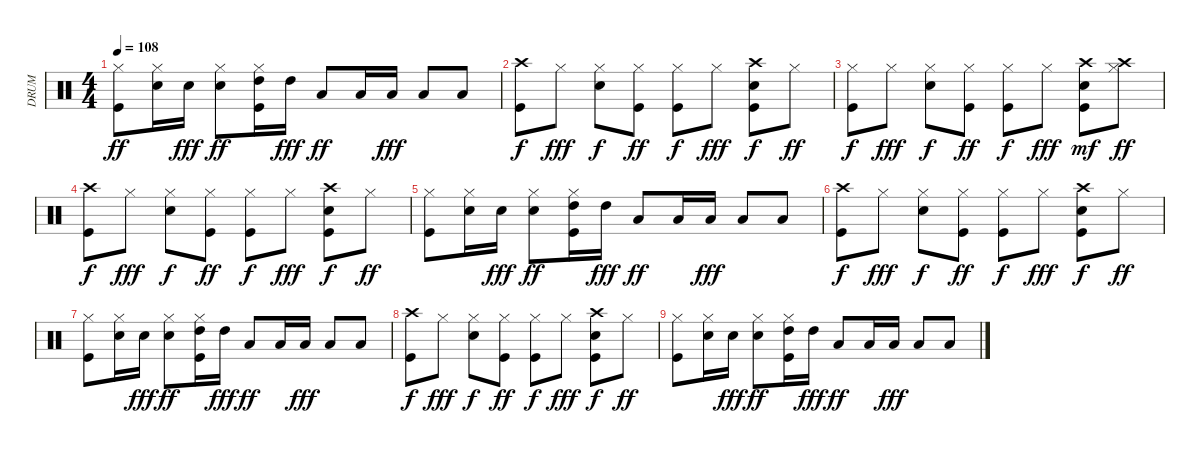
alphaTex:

\track ("DRUM" "DRUM") {instrument percussion}
\staff {score}
\articulation defaults
\ts (4 4)
\tempo 108
\clef neutral
\ks c
("Kick (hit)" "Hi-Hat (closed)").8{dy ff} ("Electric Snare (hit)" "Hi-Hat (closed)").16 "Electric Snare (hit)".16{dy fff} ("Electric Snare (hit)" "Hi-Hat (closed)").8{dy ff} ("Kick (hit)" "Hi-Hat (closed)" "High Tom (hit)").16 "High Tom (hit)".16{dy fff} "Low Tom (hit)".8{dy ff} "Low Tom (hit)".16 "Low Tom (hit)".16{dy fff} "Low Floor Tom (hit)".8 "Low Floor Tom (hit)".8 |
("Kick (hit)" "Crash high (hit)").8{dy f} "Hi-Hat (closed)".8{dy fff} ("Electric Snare (hit)" "Hi-Hat (closed)").8{dy f} ("Kick (hit)" "Hi-Hat (closed)").8{dy ff} ("Kick (hit)" "Hi-Hat (closed)").8{dy f} "Hi-Hat (closed)".8{dy fff} ("Electric Snare (hit)" "Kick (hit)" "Crash high (hit)").8{dy f} "Hi-Hat (closed)".8{dy ff} |
("Kick (hit)" "Hi-Hat (closed)").8{dy f} "Hi-Hat (closed)".8{dy fff} ("Electric Snare (hit)" "Hi-Hat (closed)").8{dy f} ("Kick (hit)" "Hi-Hat (closed)").8{dy ff} ("Kick (hit)" "Hi-Hat (closed)").8{dy f} "Hi-Hat (closed)".8{dy fff} ("Electric Snare (hit)" "Kick (hit)" "Crash high (hit)").8{dy mf} ("Hi-Hat (closed)" "Crash high (hit)").8{dy ff} |
("Kick (hit)" "Crash high (hit)").8{dy f} "Hi-Hat (closed)".8{dy fff} ("Electric Snare (hit)" "Hi-Hat (closed)").8{dy f} ("Kick (hit)" "Hi-Hat (closed)").8{dy ff} ("Kick (hit)" "Hi-Hat (closed)").8{dy f} "Hi-Hat (closed)".8{dy fff} ("Electric Snare (hit)" "Kick (hit)" "Crash high (hit)").8{dy f} "Hi-Hat (closed)".8{dy ff} |
("Kick (hit)" "Hi-Hat (closed)").8 ("Electric Snare (hit)" "Hi-Hat (closed)").16 "Electric Snare (hit)".16{dy fff} ("Electric Snare (hit)" "Hi-Hat (closed)").8{dy ff} ("Kick (hit)" "Hi-Hat (closed)" "High Tom (hit)").16 "High Tom (hit)".16{dy fff} "Low Tom (hit)".8{dy ff} "Low Tom (hit)".16 "Low Tom (hit)".16{dy fff} "Low Floor Tom (hit)".8 "Low Floor Tom (hit)".8 |
("Kick (hit)" "Crash high (hit)").8{dy f} "Hi-Hat (closed)".8{dy fff} ("Electric Snare (hit)" "Hi-Hat (closed)").8{dy f} ("Kick (hit)" "Hi-Hat (closed)").8{dy ff} ("Kick (hit)" "Hi-Hat (closed)").8{dy f} "Hi-Hat (closed)".8{dy fff} ("Electric Snare (hit)" "Kick (hit)" "Crash high (hit)").8{dy f} "Hi-Hat (closed)".8{dy ff} |
("Kick (hit)" "Hi-Hat (closed)").8 ("Electric Snare (hit)" "Hi-Hat (closed)").16 "Electric Snare (hit)".16{dy fff} ("Electric Snare (hit)" "Hi-Hat (closed)").8{dy ff} ("Kick (hit)" "Hi-Hat (closed)" "High Tom (hit)").16 "High Tom (hit)".16{dy fff} "Low Tom (hit)".8{dy ff} "Low Tom (hit)".16 "Low Tom (hit)".16{dy fff} "Low Floor Tom (hit)".8 "Low Floor Tom (hit)".8 |
("Kick (hit)" "Crash high (hit)").8{dy f} "Hi-Hat (closed)".8{dy fff} ("Electric Snare (hit)" "Hi-Hat (closed)").8{dy f} ("Kick (hit)" "Hi-Hat (closed)").8{dy ff} ("Kick (hit)" "Hi-Hat (closed)").8{dy f} "Hi-Hat (closed)".8{dy fff} ("Electric Snare (hit)" "Kick (hit)" "Crash high (hit)").8{dy f} "Hi-Hat (closed)".8{dy ff} |
("Kick (hit)" "Hi-Hat (closed)").8 ("Electric Snare (hit)" "Hi-Hat (closed)").16 "Electric Snare (hit)".16{dy fff} ("Electric Snare (hit)" "Hi-Hat (closed)").8{dy ff} ("Kick (hit)" "Hi-Hat (closed)" "High Tom (hit)").16 "High Tom (hit)".16{dy fff} "Low Tom (hit)".8{dy ff} "Low Tom (hit)".16 "Low Tom (hit)".16{dy fff} "Low Floor Tom (hit)".8 "Low Floor Tom (hit)".8
